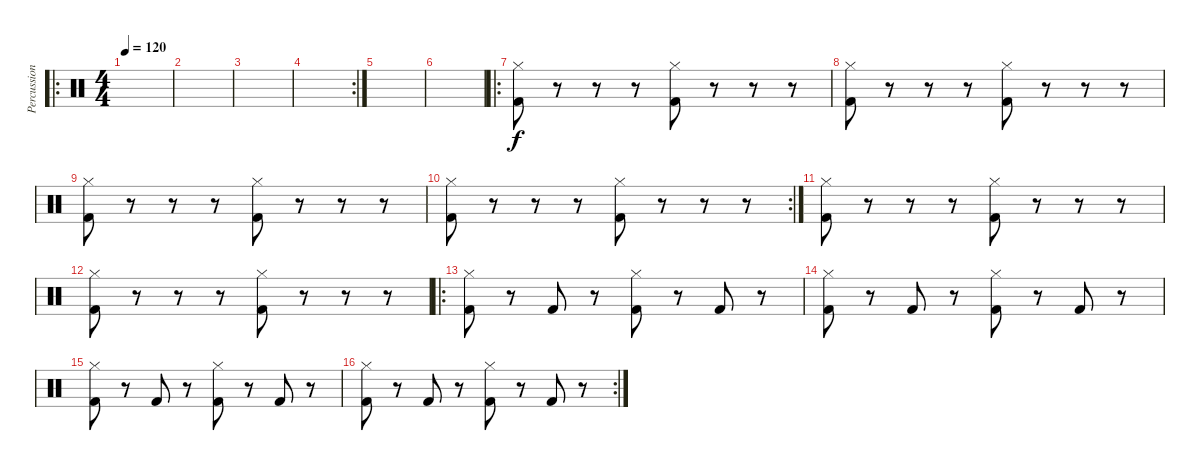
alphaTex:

\track ("Percussions" "Percussion") {instrument percussion}
\staff {score}
\articulation defaults
\ro
\ts (4 4)
\tempo 120
\clef neutral
\ks c
|
|
|
\rc 2
|
|
|
\ro
("Hi-Hat (closed)" "Kick (hit) 2").8 r.8 r.8 r.8 ("Hi-Hat (closed)" "Kick (hit) 2").8 r.8 r.8 r.8 |
("Hi-Hat (closed)" "Kick (hit) 2").8 r.8 r.8 r.8 ("Hi-Hat (closed)" "Kick (hit) 2").8 r.8 r.8 r.8 |
("Hi-Hat (closed)" "Kick (hit) 2").8 r.8 r.8 r.8 ("Hi-Hat (closed)" "Kick (hit) 2").8 r.8 r.8 r.8 |
\rc 2
("Hi-Hat (closed)" "Kick (hit) 2").8 r.8 r.8 r.8 ("Hi-Hat (closed)" "Kick (hit) 2").8 r.8 r.8 r.8 |
("Hi-Hat (closed)" "Kick (hit) 2").8 r.8 r.8 r.8 ("Hi-Hat (closed)" "Kick (hit) 2").8 r.8 r.8 r.8 |
("Hi-Hat (closed)" "Kick (hit) 2").8 r.8 r.8 r.8 ("Hi-Hat (closed)" "Kick (hit) 2").8 r.8 r.8 r.8 |
\ro
("Hi-Hat (closed)" "Kick (hit) 2").8 r.8 "Kick (hit) 2".8 r.8 ("Hi-Hat (closed)" "Kick (hit) 2").8 r.8 "Kick (hit) 2".8 r.8 |
("Hi-Hat (closed)" "Kick (hit) 2").8 r.8 "Kick (hit) 2".8 r.8 ("Hi-Hat (closed)" "Kick (hit) 2").8 r.8 "Kick (hit) 2".8 r.8 |
("Hi-Hat (closed)" "Kick (hit) 2").8 r.8 "Kick (hit) 2".8 r.8 ("Hi-Hat (closed)" "Kick (hit) 2").8 r.8 "Kick (hit) 2".8 r.8 |
\rc 2
("Hi-Hat (closed)" "Kick (hit) 2").8 r.8 "Kick (hit) 2".8 r.8 ("Hi-Hat (closed)" "Kick (hit) 2").8 r.8 "Kick (hit) 2".8 r.8
